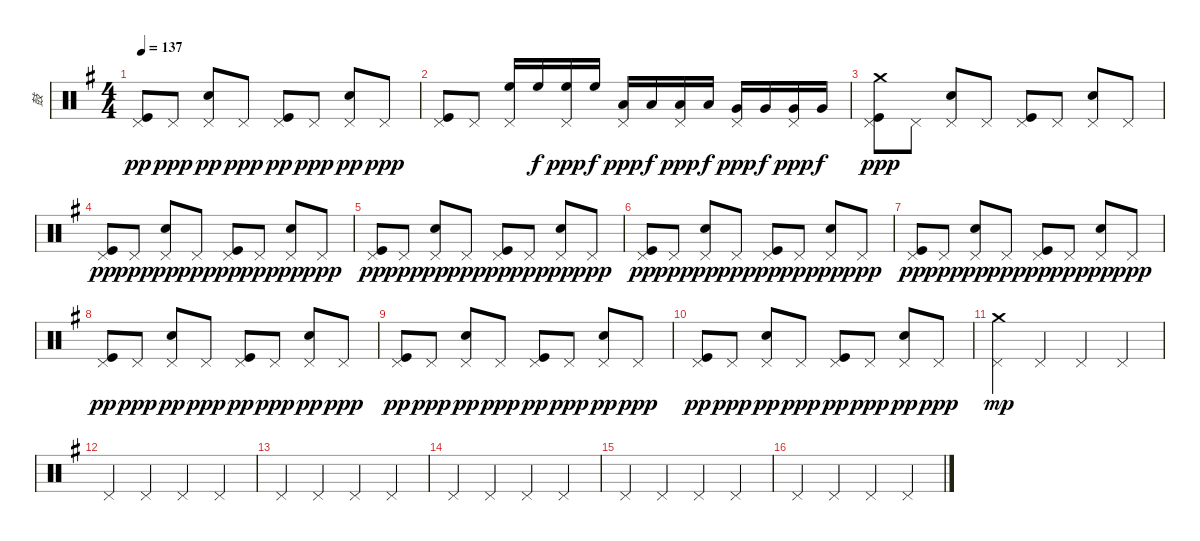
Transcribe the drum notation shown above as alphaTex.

\track ("鼓" "鼓") {instrument percussion}
\staff {score}
\articulation defaults
\ts (4 4)
\tempo 137
\clef neutral
\ks g
("Kick (hit)" "Pedal Hi-Hat (hit)").8{dy pp} "Pedal Hi-Hat (hit)".8{dy ppp} ("Snare (hit) 2" "Pedal Hi-Hat (hit)").8{dy pp} "Pedal Hi-Hat (hit)".8{dy ppp} ("Kick (hit)" "Pedal Hi-Hat (hit)").8{dy pp} "Pedal Hi-Hat (hit)".8{dy ppp} ("Snare (hit) 2" "Pedal Hi-Hat (hit)").8{dy pp} "Pedal Hi-Hat (hit)".8{dy ppp} |
("Kick (hit)" "Pedal Hi-Hat (hit)").8 "Pedal Hi-Hat (hit)".8 ("High Floor Tom (hit)" "Pedal Hi-Hat (hit)").16 "High Floor Tom (hit)".16{dy f} ("High Floor Tom (hit)" "Pedal Hi-Hat (hit)").16{dy ppp} "High Floor Tom (hit)".16{dy f} ("Low Tom (hit)" "Pedal Hi-Hat (hit)").16{dy ppp} "Low Tom (hit)".16{dy f} ("Low Tom (hit)" "Pedal Hi-Hat (hit)").16{dy ppp} "Low Tom (hit)".16{dy f} ("Very Low Tom (hit)" "Pedal Hi-Hat (hit)").16{dy ppp} "Very Low Tom (hit)".16{dy f} ("Very Low Tom (hit)" "Pedal Hi-Hat (hit)").16{dy ppp} "Very Low Tom (hit)".16{dy f} |
("Crash medium (hit)" "Kick (hit)" "Pedal Hi-Hat (hit)").8{dy ppp} "Pedal Hi-Hat (hit)".8 ("Snare (hit) 2" "Pedal Hi-Hat (hit)").8 "Pedal Hi-Hat (hit)".8 ("Kick (hit)" "Pedal Hi-Hat (hit)").8 "Pedal Hi-Hat (hit)".8 ("Snare (hit) 2" "Pedal Hi-Hat (hit)").8 "Pedal Hi-Hat (hit)".8 |
("Kick (hit)" "Pedal Hi-Hat (hit)").8{dy pp} "Pedal Hi-Hat (hit)".8{dy ppp} ("Snare (hit) 2" "Pedal Hi-Hat (hit)").8{dy pp} "Pedal Hi-Hat (hit)".8{dy ppp} ("Kick (hit)" "Pedal Hi-Hat (hit)").8{dy pp} "Pedal Hi-Hat (hit)".8{dy ppp} ("Snare (hit) 2" "Pedal Hi-Hat (hit)").8{dy pp} "Pedal Hi-Hat (hit)".8{dy ppp} |
("Kick (hit)" "Pedal Hi-Hat (hit)").8{dy pp} "Pedal Hi-Hat (hit)".8{dy ppp} ("Snare (hit) 2" "Pedal Hi-Hat (hit)").8{dy pp} "Pedal Hi-Hat (hit)".8{dy ppp} ("Kick (hit)" "Pedal Hi-Hat (hit)").8{dy pp} "Pedal Hi-Hat (hit)".8{dy ppp} ("Snare (hit) 2" "Pedal Hi-Hat (hit)").8{dy pp} "Pedal Hi-Hat (hit)".8{dy ppp} |
("Kick (hit)" "Pedal Hi-Hat (hit)").8{dy pp} "Pedal Hi-Hat (hit)".8{dy ppp} ("Snare (hit) 2" "Pedal Hi-Hat (hit)").8{dy pp} "Pedal Hi-Hat (hit)".8{dy ppp} ("Kick (hit)" "Pedal Hi-Hat (hit)").8{dy pp} "Pedal Hi-Hat (hit)".8{dy ppp} ("Snare (hit) 2" "Pedal Hi-Hat (hit)").8{dy pp} "Pedal Hi-Hat (hit)".8{dy ppp} |
("Kick (hit)" "Pedal Hi-Hat (hit)").8{dy pp} "Pedal Hi-Hat (hit)".8{dy ppp} ("Snare (hit) 2" "Pedal Hi-Hat (hit)").8{dy pp} "Pedal Hi-Hat (hit)".8{dy ppp} ("Kick (hit)" "Pedal Hi-Hat (hit)").8{dy pp} "Pedal Hi-Hat (hit)".8{dy ppp} ("Snare (hit) 2" "Pedal Hi-Hat (hit)").8{dy pp} "Pedal Hi-Hat (hit)".8{dy ppp} |
("Kick (hit)" "Pedal Hi-Hat (hit)").8{dy pp} "Pedal Hi-Hat (hit)".8{dy ppp} ("Snare (hit) 2" "Pedal Hi-Hat (hit)").8{dy pp} "Pedal Hi-Hat (hit)".8{dy ppp} ("Kick (hit)" "Pedal Hi-Hat (hit)").8{dy pp} "Pedal Hi-Hat (hit)".8{dy ppp} ("Snare (hit) 2" "Pedal Hi-Hat (hit)").8{dy pp} "Pedal Hi-Hat (hit)".8{dy ppp} |
("Kick (hit)" "Pedal Hi-Hat (hit)").8{dy pp} "Pedal Hi-Hat (hit)".8{dy ppp} ("Snare (hit) 2" "Pedal Hi-Hat (hit)").8{dy pp} "Pedal Hi-Hat (hit)".8{dy ppp} ("Kick (hit)" "Pedal Hi-Hat (hit)").8{dy pp} "Pedal Hi-Hat (hit)".8{dy ppp} ("Snare (hit) 2" "Pedal Hi-Hat (hit)").8{dy pp} "Pedal Hi-Hat (hit)".8{dy ppp} |
("Kick (hit)" "Pedal Hi-Hat (hit)").8{dy pp} "Pedal Hi-Hat (hit)".8{dy ppp} ("Snare (hit) 2" "Pedal Hi-Hat (hit)").8{dy pp} "Pedal Hi-Hat (hit)".8{dy ppp} ("Kick (hit)" "Pedal Hi-Hat (hit)").8{dy pp} "Pedal Hi-Hat (hit)".8{dy ppp} ("Snare (hit) 2" "Pedal Hi-Hat (hit)").8{dy pp} "Pedal Hi-Hat (hit)".8{dy ppp} |
("Crash medium (hit)" "Pedal Hi-Hat (hit)").4{dy mp} "Pedal Hi-Hat (hit)".4 "Pedal Hi-Hat (hit)".4 "Pedal Hi-Hat (hit)".4 |
"Pedal Hi-Hat (hit)".4 "Pedal Hi-Hat (hit)".4 "Pedal Hi-Hat (hit)".4 "Pedal Hi-Hat (hit)".4 |
"Pedal Hi-Hat (hit)".4 "Pedal Hi-Hat (hit)".4 "Pedal Hi-Hat (hit)".4 "Pedal Hi-Hat (hit)".4 |
"Pedal Hi-Hat (hit)".4 "Pedal Hi-Hat (hit)".4 "Pedal Hi-Hat (hit)".4 "Pedal Hi-Hat (hit)".4 |
"Pedal Hi-Hat (hit)".4 "Pedal Hi-Hat (hit)".4 "Pedal Hi-Hat (hit)".4 "Pedal Hi-Hat (hit)".4 |
"Pedal Hi-Hat (hit)".4 "Pedal Hi-Hat (hit)".4 "Pedal Hi-Hat (hit)".4 "Pedal Hi-Hat (hit)".4
